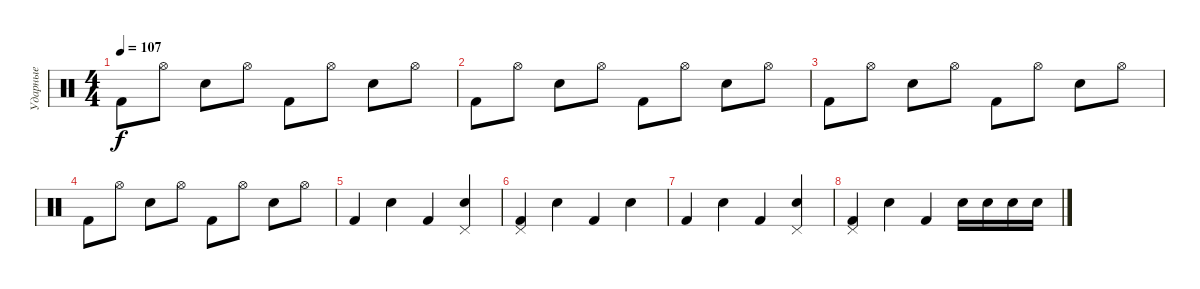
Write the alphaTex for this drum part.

\track ("Ударные" "Ударные") {instrument percussion}
\staff {score}
\articulation defaults
\ts (4 4)
\tempo 107
\clef neutral
\ks c "Kick (hit) 2".8{dy f} "Hi-Hat (open)".8 "Snare (hit) 2".8 "Hi-Hat (open)".8 "Kick (hit) 2".8 "Hi-Hat (open)".8 "Snare (hit) 2".8 "Hi-Hat (open)".8
|
"Kick (hit) 2".8 "Hi-Hat (open)".8 "Snare (hit) 2".8 "Hi-Hat (open)".8 "Kick (hit) 2".8 "Hi-Hat (open)".8 "Snare (hit) 2".8 "Hi-Hat (open)".8 |
"Kick (hit) 2".8 "Hi-Hat (open)".8 "Snare (hit) 2".8 "Hi-Hat (open)".8 "Kick (hit) 2".8 "Hi-Hat (open)".8 "Snare (hit) 2".8 "Hi-Hat (open)".8 |
"Kick (hit) 2".8 "Hi-Hat (open)".8 "Snare (hit) 2".8 "Hi-Hat (open)".8 "Kick (hit) 2".8 "Hi-Hat (open)".8 "Snare (hit) 2".8 "Hi-Hat (open)".8 |
"Kick (hit) 2".4 "Snare (hit) 2".4 "Kick (hit) 2".4 ("Pedal Hi-Hat (hit)" "Snare (hit) 2").4 |
("Pedal Hi-Hat (hit)" "Kick (hit) 2").4 "Snare (hit) 2".4 "Kick (hit) 2".4 "Snare (hit) 2".4 |
"Kick (hit) 2".4 "Snare (hit) 2".4 "Kick (hit) 2".4 ("Pedal Hi-Hat (hit)" "Snare (hit) 2").4 |
("Pedal Hi-Hat (hit)" "Kick (hit) 2").4 "Snare (hit) 2".4 "Kick (hit) 2".4 "Snare (hit) 2".16 "Snare (hit) 2".16 "Snare (hit) 2".16 "Snare (hit) 2".16
